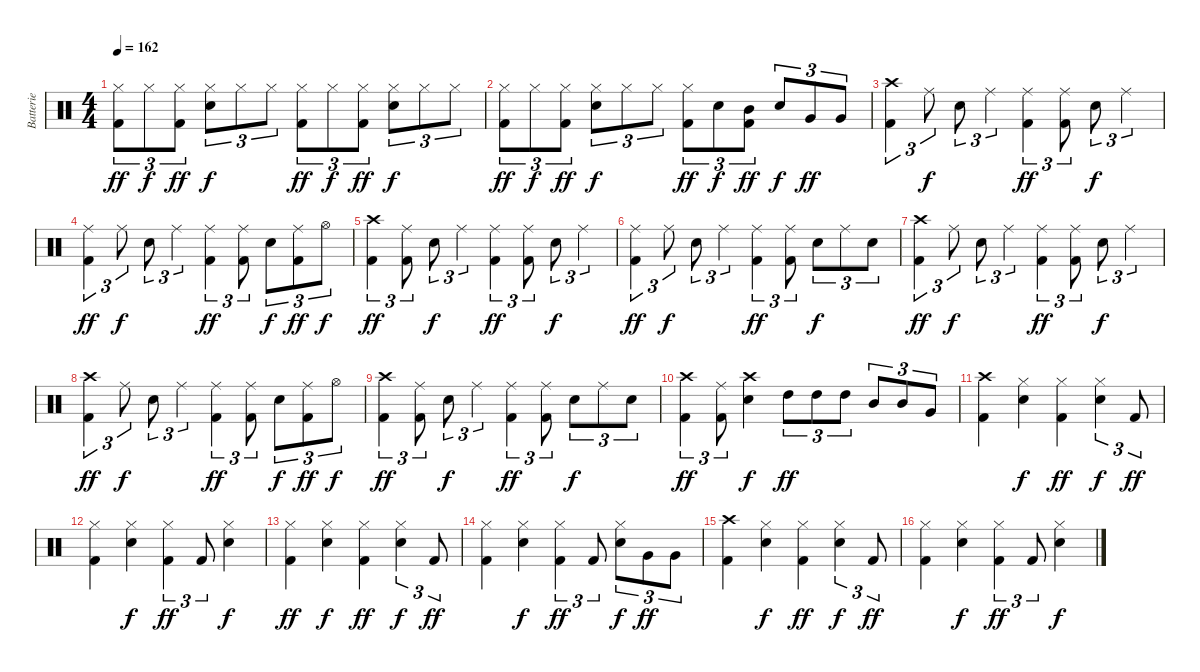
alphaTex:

\track ("Batterie" "Batterie") {instrument percussion}
\staff {score}
\articulation defaults
\ts (4 4)
\tempo 162
\clef neutral
\ks c
("Hi-Hat (closed)" "Kick (hit) 2").8{tu (3 2) dy ff} "Hi-Hat (closed)".8{tu (3 2) dy f} ("Hi-Hat (closed)" "Kick (hit) 2").8{tu (3 2) dy ff} ("Hi-Hat (closed)" "Snare (hit) 2").8{tu (3 2) dy f} "Hi-Hat (closed)".8{tu (3 2)} "Hi-Hat (closed)".8{tu (3 2)} ("Hi-Hat (closed)" "Kick (hit) 2").8{tu (3 2) dy ff} "Hi-Hat (closed)".8{tu (3 2) dy f} ("Hi-Hat (closed)" "Kick (hit) 2").8{tu (3 2) dy ff} ("Hi-Hat (closed)" "Snare (hit) 2").8{tu (3 2) dy f} "Hi-Hat (closed)".8{tu (3 2)} "Hi-Hat (closed)".8{tu (3 2)} |
("Hi-Hat (closed)" "Kick (hit) 2").8{tu (3 2) dy ff} "Hi-Hat (closed)".8{tu (3 2) dy f} ("Hi-Hat (closed)" "Kick (hit) 2").8{tu (3 2) dy ff} ("Hi-Hat (closed)" "Snare (hit) 2").8{tu (3 2) dy f} "Hi-Hat (closed)".8{tu (3 2)} "Hi-Hat (closed)".8{tu (3 2)} ("Hi-Hat (closed)" "Kick (hit) 2").8{tu (3 2) dy ff} "Snare (hit) 2".8{tu (3 2) dy f} ("Mid Tom (hit)" "Kick (hit) 2").8{tu (3 2) dy ff} "Snare (hit) 2".8{tu (3 2) dy f} "Very Low Tom (hit)".8{tu (3 2) dy ff} "Very Low Tom (hit)".8{tu (3 2)} |
("Crash high (hit)" "Kick (hit) 2").4{tu (3 2)} "Ride (middle)".8{tu (3 2) dy f} "Snare (hit) 2".8{tu (3 2)} "Ride (middle)".4{tu (3 2)} ("Ride (middle)" "Kick (hit) 2").4{tu (3 2) dy ff} ("Ride (middle)" "Kick (hit) 2").8{tu (3 2)} "Snare (hit) 2".8{tu (3 2) dy f} "Ride (middle)".4{tu (3 2)} |
("Ride (middle)" "Kick (hit) 2").4{tu (3 2) dy ff} "Ride (middle)".8{tu (3 2) dy f} "Snare (hit) 2".8{tu (3 2)} "Ride (middle)".4{tu (3 2)} ("Ride (middle)" "Kick (hit) 2").4{tu (3 2) dy ff} ("Ride (middle)" "Kick (hit) 2").8{tu (3 2)} "Snare (hit) 2".8{tu (3 2) dy f} ("Ride (middle)" "Kick (hit) 2").8{tu (3 2) dy ff} "Hi-Hat (open)".8{tu (3 2) dy f} |
("Crash high (hit)" "Kick (hit) 2").4{tu (3 2) dy ff} ("Ride (middle)" "Kick (hit) 2").8{tu (3 2)} "Snare (hit) 2".8{tu (3 2) dy f} "Ride (middle)".4{tu (3 2)} ("Ride (middle)" "Kick (hit) 2").4{tu (3 2) dy ff} ("Ride (middle)" "Kick (hit) 2").8{tu (3 2)} "Snare (hit) 2".8{tu (3 2) dy f} "Ride (middle)".4{tu (3 2)} |
("Ride (middle)" "Kick (hit) 2").4{tu (3 2) dy ff} "Ride (middle)".8{tu (3 2) dy f} "Snare (hit) 2".8{tu (3 2)} "Ride (middle)".4{tu (3 2)} ("Ride (middle)" "Kick (hit) 2").4{tu (3 2) dy ff} ("Ride (middle)" "Kick (hit) 2").8{tu (3 2)} "Snare (hit) 2".8{tu (3 2) dy f} "Ride (middle)".8{tu (3 2)} "Snare (hit) 2".8{tu (3 2)} |
("Crash high (hit)" "Kick (hit) 2").4{tu (3 2) dy ff} "Ride (middle)".8{tu (3 2) dy f} "Snare (hit) 2".8{tu (3 2)} "Ride (middle)".4{tu (3 2)} ("Ride (middle)" "Kick (hit) 2").4{tu (3 2) dy ff} ("Ride (middle)" "Kick (hit) 2").8{tu (3 2)} "Snare (hit) 2".8{tu (3 2) dy f} "Ride (middle)".4{tu (3 2)} |
("Crash high (hit)" "Kick (hit) 2").4{tu (3 2) dy ff} "Ride (middle)".8{tu (3 2) dy f} "Snare (hit) 2".8{tu (3 2)} "Ride (middle)".4{tu (3 2)} ("Ride (middle)" "Kick (hit) 2").4{tu (3 2) dy ff} ("Ride (middle)" "Kick (hit) 2").8{tu (3 2)} "Snare (hit) 2".8{tu (3 2) dy f} ("Ride (middle)" "Kick (hit) 2").8{tu (3 2) dy ff} "Hi-Hat (open)".8{tu (3 2) dy f} |
("Crash high (hit)" "Kick (hit) 2").4{tu (3 2) dy ff} ("Ride (middle)" "Kick (hit) 2").8{tu (3 2)} "Snare (hit) 2".8{tu (3 2) dy f} "Ride (middle)".4{tu (3 2)} ("Ride (middle)" "Kick (hit) 2").4{tu (3 2) dy ff} ("Ride (middle)" "Kick (hit) 2").8{tu (3 2)} "Snare (hit) 2".8{tu (3 2) dy f} "Ride (middle)".8{tu (3 2)} "Snare (hit) 2".8{tu (3 2)} |
("Crash high (hit)" "Kick (hit) 2").4{tu (3 2) dy ff} ("Ride (middle)" "Kick (hit) 2").8{tu (3 2)} ("Crash high (hit)" "Snare (hit) 2").4{dy f} "High Tom (hit)".8{tu (3 2) dy ff} "High Tom (hit)".8{tu (3 2)} "High Tom (hit)".8{tu (3 2)} "Mid Tom (hit)".8{tu (3 2)} "Mid Tom (hit)".8{tu (3 2)} "Very Low Tom (hit)".8{tu (3 2)} |
("Crash high (hit)" "Kick (hit) 2").4 ("Hi-Hat (closed)" "Snare (hit) 2").4{dy f} ("Hi-Hat (closed)" "Kick (hit) 2").4{dy ff} ("Hi-Hat (closed)" "Snare (hit) 2").4{tu (3 2) dy f} "Kick (hit) 2".8{tu (3 2) dy ff} |
("Hi-Hat (closed)" "Kick (hit) 2").4 ("Hi-Hat (closed)" "Snare (hit) 2").4{dy f} ("Hi-Hat (closed)" "Kick (hit) 2").4{tu (3 2) dy ff} "Kick (hit) 2".8{tu (3 2)} ("Hi-Hat (closed)" "Snare (hit) 2").4{dy f} |
("Hi-Hat (closed)" "Kick (hit) 2").4{dy ff} ("Hi-Hat (closed)" "Snare (hit) 2").4{dy f} ("Hi-Hat (closed)" "Kick (hit) 2").4{dy ff} ("Hi-Hat (closed)" "Snare (hit) 2").4{tu (3 2) dy f} "Kick (hit) 2".8{tu (3 2) dy ff} |
("Hi-Hat (closed)" "Kick (hit) 2").4 ("Hi-Hat (closed)" "Snare (hit) 2").4{dy f} ("Hi-Hat (closed)" "Kick (hit) 2").4{tu (3 2) dy ff} "Kick (hit) 2".8{tu (3 2)} ("Hi-Hat (closed)" "Snare (hit) 2").8{tu (3 2) dy f} "Very Low Tom (hit)".8{tu (3 2) dy ff} "Very Low Tom (hit)".8{tu (3 2)} |
("Crash high (hit)" "Kick (hit) 2").4 ("Hi-Hat (closed)" "Snare (hit) 2").4{dy f} ("Hi-Hat (closed)" "Kick (hit) 2").4{dy ff} ("Hi-Hat (closed)" "Snare (hit) 2").4{tu (3 2) dy f} "Kick (hit) 2".8{tu (3 2) dy ff} |
("Hi-Hat (closed)" "Kick (hit) 2").4 ("Hi-Hat (closed)" "Snare (hit) 2").4{dy f} ("Hi-Hat (closed)" "Kick (hit) 2").4{tu (3 2) dy ff} "Kick (hit) 2".8{tu (3 2)} ("Hi-Hat (closed)" "Snare (hit) 2").4{dy f}
